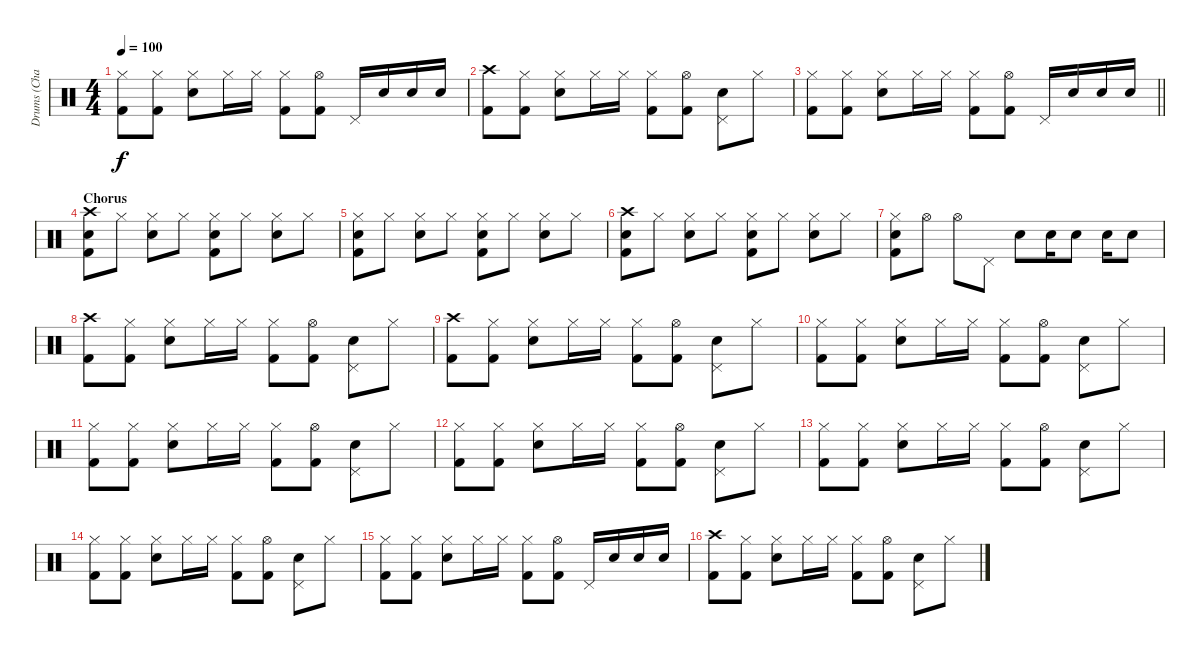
\track ("Drums (Charlie)" "Drums (Cha") {instrument percussion}
\staff {score}
\articulation defaults
\ts (4 4)
\tempo 100
\clef neutral
\ks c
("Hi-Hat (closed)" "Kick (hit) 2").8{dy f} ("Hi-Hat (closed)" "Kick (hit) 2").8 ("Hi-Hat (closed)" "Electric Snare (hit)").8 "Hi-Hat (closed)".16 "Hi-Hat (closed)".16 ("Hi-Hat (closed)" "Kick (hit) 2").8 ("Hi-Hat (open)" "Kick (hit) 2").8 "Pedal Hi-Hat (hit)".16 "Electric Snare (hit)".16 "Electric Snare (hit)".16 "Electric Snare (hit)".16 |
("Crash high (hit)" "Kick (hit) 2").8 ("Hi-Hat (closed)" "Kick (hit) 2").8 ("Hi-Hat (closed)" "Electric Snare (hit)").8 "Hi-Hat (closed)".16 "Hi-Hat (closed)".16 ("Hi-Hat (closed)" "Kick (hit) 2").8 ("Hi-Hat (open)" "Kick (hit) 2").8 ("Pedal Hi-Hat (hit)" "Electric Snare (hit)").8 "Hi-Hat (closed)".8 |
\barLineRight lightlight
("Hi-Hat (closed)" "Kick (hit) 2").8 ("Hi-Hat (closed)" "Kick (hit) 2").8 ("Hi-Hat (closed)" "Electric Snare (hit)").8 "Hi-Hat (closed)".16 "Hi-Hat (closed)".16 ("Hi-Hat (closed)" "Kick (hit) 2").8 ("Hi-Hat (open)" "Kick (hit) 2").8 "Pedal Hi-Hat (hit)".16 "Electric Snare (hit)".16 "Electric Snare (hit)".16 "Electric Snare (hit)".16 |
\section ("" "Chorus")
("Crash high (hit)" "Electric Snare (hit)" "Kick (hit) 2").8 "Hi-Hat (closed)".8 ("Hi-Hat (closed)" "Electric Snare (hit)").8 "Hi-Hat (closed)".8 ("Hi-Hat (closed)" "Electric Snare (hit)" "Kick (hit) 2").8 "Hi-Hat (closed)".8 ("Hi-Hat (closed)" "Electric Snare (hit)").8 "Hi-Hat (closed)".8 |
("Hi-Hat (closed)" "Electric Snare (hit)" "Kick (hit) 2").8 "Hi-Hat (closed)".8 ("Hi-Hat (closed)" "Electric Snare (hit)").8 "Hi-Hat (closed)".8 ("Hi-Hat (closed)" "Electric Snare (hit)" "Kick (hit) 2").8 "Hi-Hat (closed)".8 ("Hi-Hat (closed)" "Electric Snare (hit)").8 "Hi-Hat (closed)".8 |
("Crash high (hit)" "Electric Snare (hit)" "Kick (hit) 2").8 "Hi-Hat (closed)".8 ("Hi-Hat (closed)" "Electric Snare (hit)").8 "Hi-Hat (closed)".8 ("Hi-Hat (closed)" "Electric Snare (hit)" "Kick (hit) 2").8 "Hi-Hat (closed)".8 ("Hi-Hat (closed)" "Electric Snare (hit)").8 "Hi-Hat (closed)".8 |
("Hi-Hat (closed)" "Electric Snare (hit)" "Kick (hit) 2").8 "Hi-Hat (open)".8 "Hi-Hat (open)".8 "Pedal Hi-Hat (hit)".8 "Electric Snare (hit)".8 "Electric Snare (hit)".16 "Electric Snare (hit)".8 "Electric Snare (hit)".16 "Electric Snare (hit)".8 |
("Crash high (hit)" "Kick (hit) 2").8 ("Hi-Hat (closed)" "Kick (hit) 2").8 ("Hi-Hat (closed)" "Electric Snare (hit)").8 "Hi-Hat (closed)".16 "Hi-Hat (closed)".16 ("Hi-Hat (closed)" "Kick (hit) 2").8 ("Hi-Hat (open)" "Kick (hit) 2").8 ("Pedal Hi-Hat (hit)" "Electric Snare (hit)").8 "Hi-Hat (closed)".8 |
("Crash high (hit)" "Kick (hit) 2").8 ("Hi-Hat (closed)" "Kick (hit) 2").8 ("Hi-Hat (closed)" "Electric Snare (hit)").8 "Hi-Hat (closed)".16 "Hi-Hat (closed)".16 ("Hi-Hat (closed)" "Kick (hit) 2").8 ("Hi-Hat (open)" "Kick (hit) 2").8 ("Pedal Hi-Hat (hit)" "Electric Snare (hit)").8 "Hi-Hat (closed)".8 |
("Hi-Hat (closed)" "Kick (hit) 2").8 ("Hi-Hat (closed)" "Kick (hit) 2").8 ("Hi-Hat (closed)" "Electric Snare (hit)").8 "Hi-Hat (closed)".16 "Hi-Hat (closed)".16 ("Hi-Hat (closed)" "Kick (hit) 2").8 ("Hi-Hat (open)" "Kick (hit) 2").8 ("Pedal Hi-Hat (hit)" "Electric Snare (hit)").8 "Hi-Hat (closed)".8 |
("Hi-Hat (closed)" "Kick (hit) 2").8 ("Hi-Hat (closed)" "Kick (hit) 2").8 ("Hi-Hat (closed)" "Electric Snare (hit)").8 "Hi-Hat (closed)".16 "Hi-Hat (closed)".16 ("Hi-Hat (closed)" "Kick (hit) 2").8 ("Hi-Hat (open)" "Kick (hit) 2").8 ("Pedal Hi-Hat (hit)" "Electric Snare (hit)").8 "Hi-Hat (closed)".8 |
("Hi-Hat (closed)" "Kick (hit) 2").8 ("Hi-Hat (closed)" "Kick (hit) 2").8 ("Hi-Hat (closed)" "Electric Snare (hit)").8 "Hi-Hat (closed)".16 "Hi-Hat (closed)".16 ("Hi-Hat (closed)" "Kick (hit) 2").8 ("Hi-Hat (open)" "Kick (hit) 2").8 ("Pedal Hi-Hat (hit)" "Electric Snare (hit)").8 "Hi-Hat (closed)".8 |
("Hi-Hat (closed)" "Kick (hit) 2").8 ("Hi-Hat (closed)" "Kick (hit) 2").8 ("Hi-Hat (closed)" "Electric Snare (hit)").8 "Hi-Hat (closed)".16 "Hi-Hat (closed)".16 ("Hi-Hat (closed)" "Kick (hit) 2").8 ("Hi-Hat (open)" "Kick (hit) 2").8 ("Pedal Hi-Hat (hit)" "Electric Snare (hit)").8 "Hi-Hat (closed)".8 |
("Hi-Hat (closed)" "Kick (hit) 2").8 ("Hi-Hat (closed)" "Kick (hit) 2").8 ("Hi-Hat (closed)" "Electric Snare (hit)").8 "Hi-Hat (closed)".16 "Hi-Hat (closed)".16 ("Hi-Hat (closed)" "Kick (hit) 2").8 ("Hi-Hat (open)" "Kick (hit) 2").8 ("Pedal Hi-Hat (hit)" "Electric Snare (hit)").8 "Hi-Hat (closed)".8 |
("Hi-Hat (closed)" "Kick (hit) 2").8 ("Hi-Hat (closed)" "Kick (hit) 2").8 ("Hi-Hat (closed)" "Electric Snare (hit)").8 "Hi-Hat (closed)".16 "Hi-Hat (closed)".16 ("Hi-Hat (closed)" "Kick (hit) 2").8 ("Hi-Hat (open)" "Kick (hit) 2").8 "Pedal Hi-Hat (hit)".16 "Electric Snare (hit)".16 "Electric Snare (hit)".16 "Electric Snare (hit)".16 |
("Crash high (hit)" "Kick (hit) 2").8 ("Hi-Hat (closed)" "Kick (hit) 2").8 ("Hi-Hat (closed)" "Electric Snare (hit)").8 "Hi-Hat (closed)".16 "Hi-Hat (closed)".16 ("Hi-Hat (closed)" "Kick (hit) 2").8 ("Hi-Hat (open)" "Kick (hit) 2").8 ("Pedal Hi-Hat (hit)" "Electric Snare (hit)").8 "Hi-Hat (closed)".8
